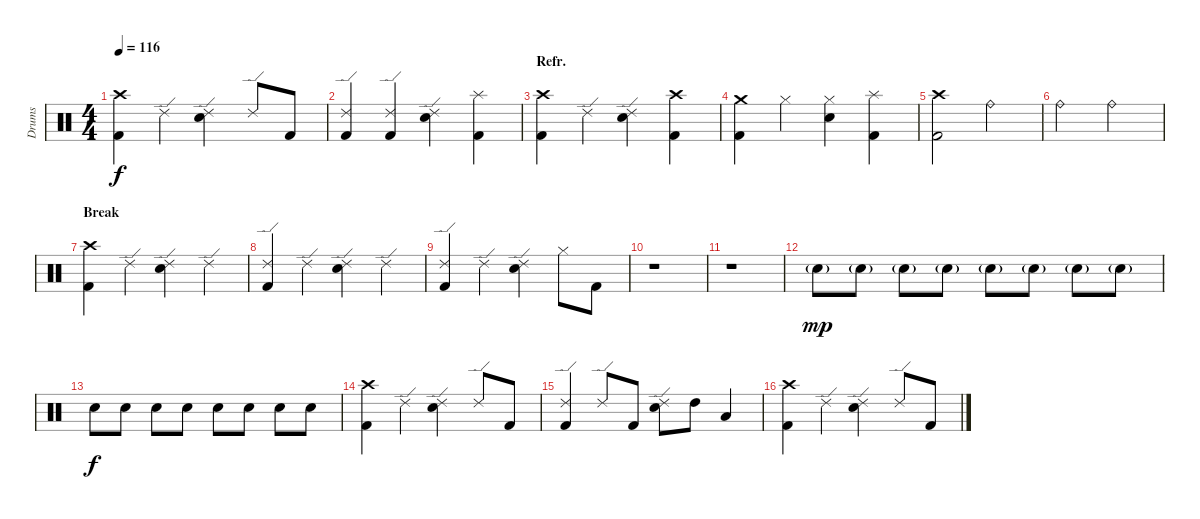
\track ("Drums" "Drums") {instrument percussion}
\staff {score}
\articulation defaults
\ts (4 4)
\tempo 116
\clef neutral
\ks c
("Crash high (hit)" "Kick (hit) 2").4{dy f} "Ride (edge) 2".4 ("Ride (edge) 2" "Snare (hit) 2").4 "Ride (edge) 2".8 "Kick (hit) 2".8 |
("Ride (edge) 2" "Kick (hit) 2").4 ("Ride (edge) 2" "Kick (hit) 2").4 ("Ride (edge) 2" "Snare (hit) 2").4 ("Splash (hit)" "Kick (hit) 2").4 |
\section ("" "Refr.")
("Crash high (hit)" "Kick (hit) 2").4 "Ride (edge) 2".4 ("Ride (edge) 2" "Snare (hit) 2").4 ("Crash high (hit)" "Kick (hit) 2").4 |
("Crash medium (hit)" "Kick (hit) 2").4 "Hi-Hat (closed)".4 ("Hi-Hat (closed)" "Snare (hit) 2").4 ("Splash (hit)" "Kick (hit) 2").4 |
("Crash high (hit)" "Kick (hit) 2").2 "Ride (bell)".2 |
"Ride (bell)".2 "Ride (bell)".2 |
\section ("" "Break")
("Crash high (hit)" "Kick (hit) 2").4 "Ride (edge) 2".4 ("Ride (edge) 2" "Snare (hit) 2").4 "Ride (edge) 2".4 |
("Ride (edge) 2" "Kick (hit) 2").4 "Ride (edge) 2".4 ("Ride (edge) 2" "Snare (hit) 2").4 "Ride (edge) 2".4 |
("Ride (edge) 2" "Kick (hit) 2").4 "Ride (edge) 2".4 ("Ride (edge) 2" "Snare (hit) 2").4 "Hi-Hat (closed)".8 "Kick (hit) 2".8 |
r.1 |
r.1 |
"Snare (hit) 2"{g}.8{dy mp} "Snare (hit) 2"{g}.8 "Snare (hit) 2"{g}.8 "Snare (hit) 2"{g}.8 "Snare (hit) 2"{g}.8 "Snare (hit) 2"{g}.8 "Snare (hit) 2"{g}.8 "Snare (hit) 2"{g}.8 |
"Snare (hit) 2".8{dy f} "Snare (hit) 2".8 "Snare (hit) 2".8 "Snare (hit) 2".8 "Snare (hit) 2".8 "Snare (hit) 2".8 "Snare (hit) 2".8 "Snare (hit) 2".8 |
("Crash high (hit)" "Kick (hit) 2").4 "Ride (edge) 2".4 ("Ride (edge) 2" "Snare (hit) 2").4 "Ride (edge) 2".8 "Kick (hit) 2".8 |
("Ride (edge) 2" "Kick (hit) 2").4 "Ride (edge) 2".8 "Kick (hit) 2".8 ("Ride (edge) 2" "Snare (hit) 2").8 "High Tom (hit)".8 "Low Tom (hit)".4 |
("Crash high (hit)" "Kick (hit) 2").4 "Ride (edge) 2".4 ("Ride (edge) 2" "Snare (hit) 2").4 "Ride (edge) 2".8 "Kick (hit) 2".8
